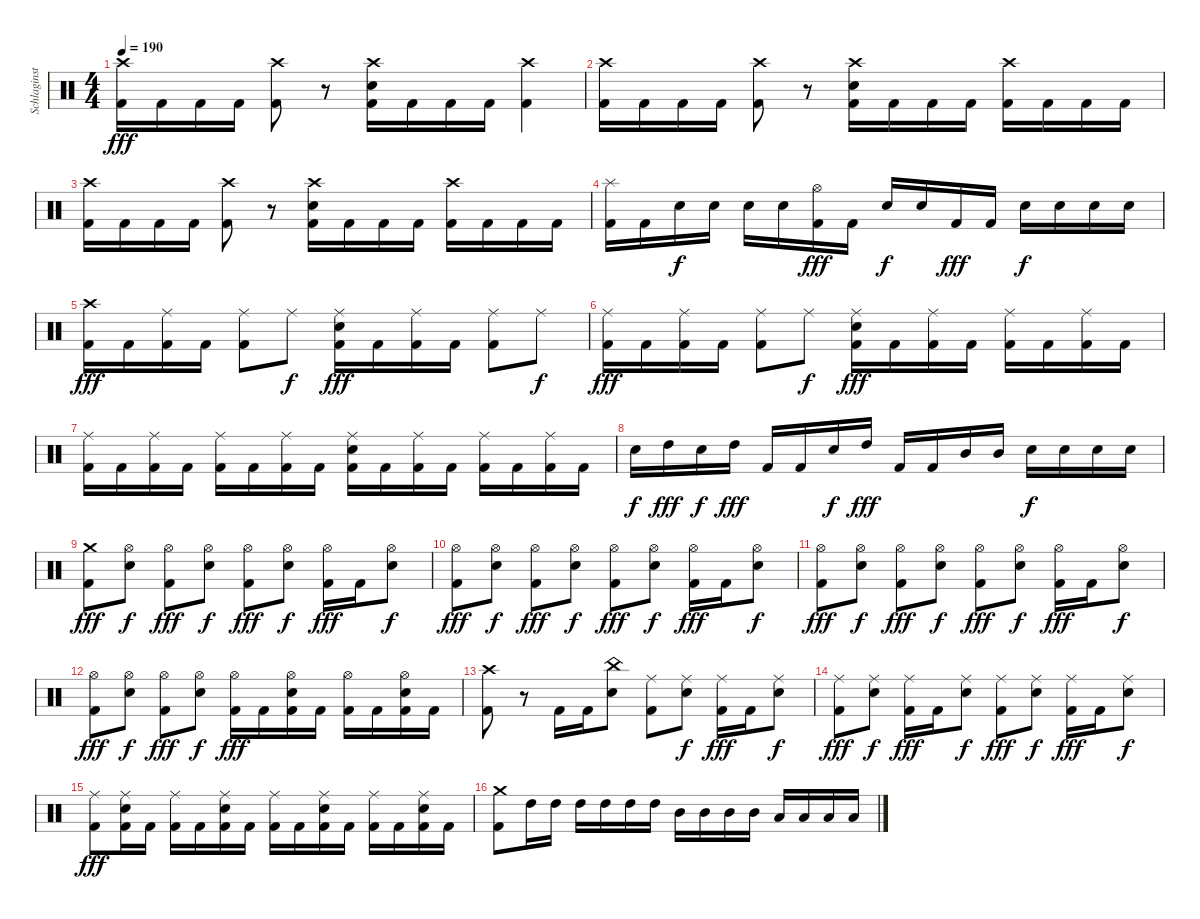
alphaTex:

\track ("Schlaginstrumente - Auswahl" "Schlaginst") {instrument percussion}
\staff {score}
\articulation defaults
\ts (4 4)
\tempo 190
\clef neutral
\ks c
("Crash high (hit)" "Kick (hit) 2").16{dy fff} "Kick (hit) 2".16 "Kick (hit) 2".16 "Kick (hit) 2".16 ("Crash high (hit)" "Kick (hit) 2").8 r.8 ("Crash high (hit)" "Snare (hit) 2" "Kick (hit) 2").16 "Kick (hit) 2".16 "Kick (hit) 2".16 "Kick (hit) 2".16 ("Crash high (hit)" "Kick (hit) 2").4 |
("Crash high (hit)" "Kick (hit) 2").16 "Kick (hit) 2".16 "Kick (hit) 2".16 "Kick (hit) 2".16 ("Crash high (hit)" "Kick (hit) 2").8 r.8 ("Crash high (hit)" "Snare (hit) 2" "Kick (hit) 2").16 "Kick (hit) 2".16 "Kick (hit) 2".16 "Kick (hit) 2".16 ("Crash high (hit)" "Kick (hit) 2").16 "Kick (hit) 2".16 "Kick (hit) 2".16 "Kick (hit) 2".16 |
("Crash high (hit)" "Kick (hit) 2").16 "Kick (hit) 2".16 "Kick (hit) 2".16 "Kick (hit) 2".16 ("Crash high (hit)" "Kick (hit) 2").8 r.8 ("Crash high (hit)" "Snare (hit) 2" "Kick (hit) 2").16 "Kick (hit) 2".16 "Kick (hit) 2".16 "Kick (hit) 2".16 ("Crash high (hit)" "Kick (hit) 2").16 "Kick (hit) 2".16 "Kick (hit) 2".16 "Kick (hit) 2".16 |
("Splash (hit)" "Kick (hit) 2").16 "Kick (hit) 2".16 "Snare (hit) 2".16{dy f} "Snare (hit) 2".16 "Snare (hit) 2".16 "Snare (hit) 2".16 ("Hi-Hat (open)" "Kick (hit) 2").16{dy fff} "Kick (hit) 2".16 "Snare (hit) 2".16{dy f} "Snare (hit) 2".16 "Kick (hit) 2".16{dy fff} "Kick (hit) 2".16 "Snare (hit) 2".16{dy f} "Snare (hit) 2".16 "Snare (hit) 2".16 "Snare (hit) 2".16 |
("Crash high (hit)" "Kick (hit) 2").16{dy fff} "Kick (hit) 2".16 ("Ride (middle)" "Kick (hit) 2").16 "Kick (hit) 2".16 ("Ride (middle)" "Kick (hit) 2").8 "Ride (middle)".8{dy f} ("Ride (middle)" "Snare (hit) 2" "Kick (hit) 2").16{dy fff} "Kick (hit) 2".16 ("Ride (middle)" "Kick (hit) 2").16 "Kick (hit) 2".16 ("Ride (middle)" "Kick (hit) 2").8 "Ride (middle)".8{dy f} |
("Ride (middle)" "Kick (hit) 2").16{dy fff} "Kick (hit) 2".16 ("Ride (middle)" "Kick (hit) 2").16 "Kick (hit) 2".16 ("Ride (middle)" "Kick (hit) 2").8 "Ride (middle)".8{dy f} ("Ride (middle)" "Snare (hit) 2" "Kick (hit) 2").16{dy fff} "Kick (hit) 2".16 ("Ride (middle)" "Kick (hit) 2").16 "Kick (hit) 2".16 ("Ride (middle)" "Kick (hit) 2").16 "Kick (hit) 2".16 ("Ride (middle)" "Kick (hit) 2").16 "Kick (hit) 2".16 |
("Ride (middle)" "Kick (hit) 2").16 "Kick (hit) 2".16 ("Ride (middle)" "Kick (hit) 2").16 "Kick (hit) 2".16 ("Ride (middle)" "Kick (hit) 2").16 "Kick (hit) 2".16 ("Ride (middle)" "Kick (hit) 2").16 "Kick (hit) 2".16 ("Ride (middle)" "Snare (hit) 2" "Kick (hit) 2").16 "Kick (hit) 2".16 ("Ride (middle)" "Kick (hit) 2").16 "Kick (hit) 2".16 ("Ride (middle)" "Kick (hit) 2").16 "Kick (hit) 2".16 ("Ride (middle)" "Kick (hit) 2").16 "Kick (hit) 2".16 |
"Snare (hit) 2".16{dy f} "High Tom (hit)".16{dy fff} "Snare (hit) 2".16{dy f} "High Tom (hit)".16{dy fff} "Kick (hit) 2".16 "Kick (hit) 2".16 "Snare (hit) 2".16{dy f} "High Tom (hit)".16{dy fff} "Kick (hit) 2".16 "Kick (hit) 2".16 "Mid Tom (hit)".16 "Mid Tom (hit)".16 "Snare (hit) 2".16{dy f} "Snare (hit) 2".16 "Snare (hit) 2".16 "Snare (hit) 2".16 |
("Crash medium (hit)" "Kick (hit) 2").8{dy fff} ("Hi-Hat (open)" "Snare (hit) 2").8{dy f} ("Hi-Hat (open)" "Kick (hit) 2").8{dy fff} ("Hi-Hat (open)" "Snare (hit) 2").8{dy f} ("Hi-Hat (open)" "Kick (hit) 2").8{dy fff} ("Hi-Hat (open)" "Snare (hit) 2").8{dy f} ("Hi-Hat (open)" "Kick (hit) 2").16{dy fff} "Kick (hit) 2".16 ("Hi-Hat (open)" "Snare (hit) 2").8{dy f} |
("Hi-Hat (open)" "Kick (hit) 2").8{dy fff} ("Hi-Hat (open)" "Snare (hit) 2").8{dy f} ("Hi-Hat (open)" "Kick (hit) 2").8{dy fff} ("Hi-Hat (open)" "Snare (hit) 2").8{dy f} ("Hi-Hat (open)" "Kick (hit) 2").8{dy fff} ("Hi-Hat (open)" "Snare (hit) 2").8{dy f} ("Hi-Hat (open)" "Kick (hit) 2").16{dy fff} "Kick (hit) 2".16 ("Hi-Hat (open)" "Snare (hit) 2").8{dy f} |
("Hi-Hat (open)" "Kick (hit) 2").8{dy fff} ("Hi-Hat (open)" "Snare (hit) 2").8{dy f} ("Hi-Hat (open)" "Kick (hit) 2").8{dy fff} ("Hi-Hat (open)" "Snare (hit) 2").8{dy f} ("Hi-Hat (open)" "Kick (hit) 2").8{dy fff} ("Hi-Hat (open)" "Snare (hit) 2").8{dy f} ("Hi-Hat (open)" "Kick (hit) 2").16{dy fff} "Kick (hit) 2".16 ("Hi-Hat (open)" "Snare (hit) 2").8{dy f} |
("Hi-Hat (open)" "Kick (hit) 2").8{dy fff} ("Hi-Hat (open)" "Snare (hit) 2").8{dy f} ("Hi-Hat (open)" "Kick (hit) 2").8{dy fff} ("Hi-Hat (open)" "Snare (hit) 2").8{dy f} ("Hi-Hat (open)" "Kick (hit) 2").16{dy fff} "Kick (hit) 2".16 ("Hi-Hat (open)" "Snare (hit) 2" "Kick (hit) 2").16 "Kick (hit) 2".16 ("Hi-Hat (open)" "Kick (hit) 2").16 "Kick (hit) 2".16 ("Hi-Hat (open)" "Snare (hit) 2" "Kick (hit) 2").16 "Kick (hit) 2".16 |
("Crash high (hit)" "Kick (hit) 2").8 r.8 "Kick (hit) 2".16 "Kick (hit) 2".16 ("China (hit)" "Snare (hit) 2").8 ("Ride (middle)" "Kick (hit) 2").8 ("Ride (middle)" "Snare (hit) 2").8{dy f} ("Ride (middle)" "Kick (hit) 2").16{dy fff} "Kick (hit) 2".16 ("Ride (middle)" "Snare (hit) 2").8{dy f} |
("Ride (middle)" "Kick (hit) 2").8{dy fff} ("Ride (middle)" "Snare (hit) 2").8{dy f} ("Ride (middle)" "Kick (hit) 2").16{dy fff} "Kick (hit) 2".16 ("Ride (middle)" "Snare (hit) 2").8{dy f} ("Ride (middle)" "Kick (hit) 2").8{dy fff} ("Ride (middle)" "Snare (hit) 2").8{dy f} ("Ride (middle)" "Kick (hit) 2").16{dy fff} "Kick (hit) 2".16 ("Ride (middle)" "Snare (hit) 2").8{dy f} |
("Ride (middle)" "Kick (hit) 2").8{dy fff} ("Ride (middle)" "Snare (hit) 2" "Kick (hit) 2").16 "Kick (hit) 2".16 ("Ride (middle)" "Kick (hit) 2").16 "Kick (hit) 2".16 ("Ride (middle)" "Snare (hit) 2" "Kick (hit) 2").16 "Kick (hit) 2".16 ("Ride (middle)" "Kick (hit) 2").16 "Kick (hit) 2".16 ("Ride (middle)" "Snare (hit) 2" "Kick (hit) 2").16 "Kick (hit) 2".16 ("Ride (middle)" "Kick (hit) 2").16 "Kick (hit) 2".16 ("Ride (middle)" "Snare (hit) 2" "Kick (hit) 2").16 "Kick (hit) 2".16 |
("Crash medium (hit)" "Kick (hit) 2").8 "High Tom (hit)".16 "High Tom (hit)".16 "High Tom (hit)".16 "High Tom (hit)".16 "High Tom (hit)".16 "High Tom (hit)".16 "Mid Tom (hit)".16 "Mid Tom (hit)".16 "Mid Tom (hit)".16 "Mid Tom (hit)".16 "Low Tom (hit)".16 "Low Tom (hit)".16 "Low Tom (hit)".16 "Low Tom (hit)".16
